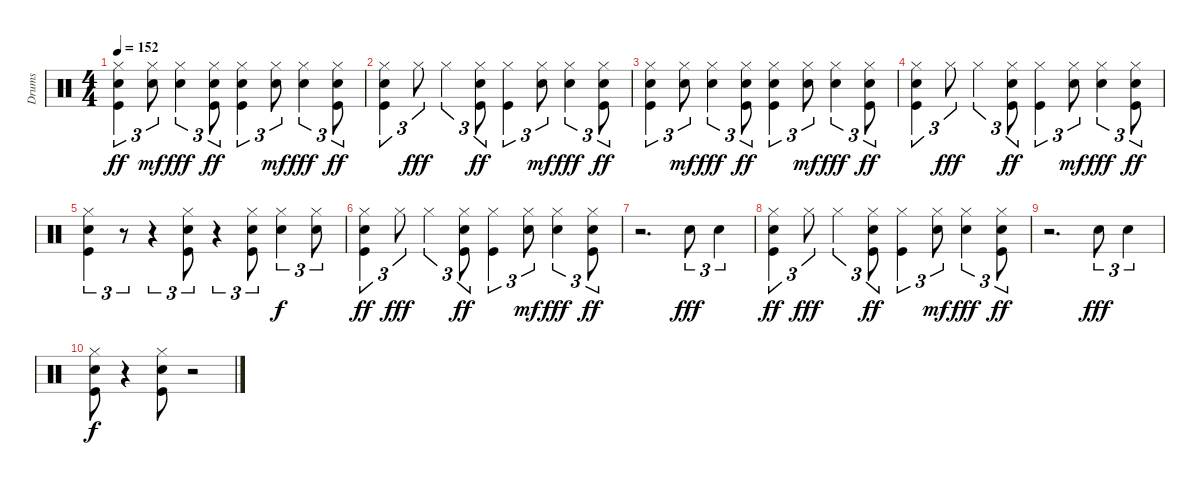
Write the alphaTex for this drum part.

\track ("Drums" "Drums") {instrument percussion}
\staff {score}
\articulation defaults
\ts (4 4)
\tempo 152
\clef neutral
\ks c
("Hi-Hat (closed)" "Snare (hit) 2" "Kick (hit)").4{tu (3 2) dy ff} ("Hi-Hat (closed)" "Snare (hit) 2").8{tu (3 2) dy mf} ("Hi-Hat (closed)" "Snare (hit) 2").4{tu (3 2) dy fff} ("Hi-Hat (closed)" "Snare (hit) 2" "Kick (hit)").8{tu (3 2) dy ff} ("Hi-Hat (closed)" "Snare (hit) 2" "Kick (hit)").4{tu (3 2)} ("Hi-Hat (closed)" "Snare (hit) 2").8{tu (3 2) dy mf} ("Hi-Hat (closed)" "Snare (hit) 2").4{tu (3 2) dy fff} ("Hi-Hat (closed)" "Snare (hit) 2" "Kick (hit)").8{tu (3 2) dy ff} |
("Hi-Hat (closed)" "Snare (hit) 2" "Kick (hit)").4{tu (3 2)} "Hi-Hat (closed)".8{tu (3 2) dy fff} "Hi-Hat (closed)".4{tu (3 2)} ("Hi-Hat (closed)" "Snare (hit) 2" "Kick (hit)").8{tu (3 2) dy ff} ("Hi-Hat (closed)" "Kick (hit)").4{tu (3 2)} ("Hi-Hat (closed)" "Snare (hit) 2").8{tu (3 2) dy mf} ("Hi-Hat (closed)" "Snare (hit) 2").4{tu (3 2) dy fff} ("Hi-Hat (closed)" "Snare (hit) 2" "Kick (hit)").8{tu (3 2) dy ff} |
("Hi-Hat (closed)" "Snare (hit) 2" "Kick (hit)").4{tu (3 2)} ("Hi-Hat (closed)" "Snare (hit) 2").8{tu (3 2) dy mf} ("Hi-Hat (closed)" "Snare (hit) 2").4{tu (3 2) dy fff} ("Hi-Hat (closed)" "Snare (hit) 2" "Kick (hit)").8{tu (3 2) dy ff} ("Hi-Hat (closed)" "Snare (hit) 2" "Kick (hit)").4{tu (3 2)} ("Hi-Hat (closed)" "Snare (hit) 2").8{tu (3 2) dy mf} ("Hi-Hat (closed)" "Snare (hit) 2").4{tu (3 2) dy fff} ("Hi-Hat (closed)" "Snare (hit) 2" "Kick (hit)").8{tu (3 2) dy ff} |
("Hi-Hat (closed)" "Snare (hit) 2" "Kick (hit)").4{tu (3 2)} "Hi-Hat (closed)".8{tu (3 2) dy fff} "Hi-Hat (closed)".4{tu (3 2)} ("Hi-Hat (closed)" "Snare (hit) 2" "Kick (hit)").8{tu (3 2) dy ff} ("Hi-Hat (closed)" "Kick (hit)").4{tu (3 2)} ("Hi-Hat (closed)" "Snare (hit) 2").8{tu (3 2) dy mf} ("Hi-Hat (closed)" "Snare (hit) 2").4{tu (3 2) dy fff} ("Hi-Hat (closed)" "Snare (hit) 2" "Kick (hit)").8{tu (3 2) dy ff} |
("Hi-Hat (closed)" "Snare (hit) 2" "Kick (hit)").4{tu (3 2)} r.8{tu (3 2)} r.4{tu (3 2)} ("Hi-Hat (closed)" "Snare (hit) 2" "Kick (hit)").8{tu (3 2)} r.4{tu (3 2)} ("Hi-Hat (closed)" "Snare (hit) 2" "Kick (hit)").8{tu (3 2)} ("Hi-Hat (closed)" "Snare (hit) 2").4{tu (3 2) dy f} ("Hi-Hat (closed)" "Snare (hit) 2").8{tu (3 2)} |
("Hi-Hat (closed)" "Snare (hit) 2" "Kick (hit)").4{tu (3 2) dy ff} "Hi-Hat (closed)".8{tu (3 2) dy fff} "Hi-Hat (closed)".4{tu (3 2)} ("Hi-Hat (closed)" "Snare (hit) 2" "Kick (hit)").8{tu (3 2) dy ff} ("Hi-Hat (closed)" "Kick (hit)").4{tu (3 2)} ("Hi-Hat (closed)" "Snare (hit) 2").8{tu (3 2) dy mf} ("Hi-Hat (closed)" "Snare (hit) 2").4{tu (3 2) dy fff} ("Hi-Hat (closed)" "Snare (hit) 2" "Kick (hit)").8{tu (3 2) dy ff} |
r.2{d} "Snare (hit) 2".8{tu (3 2) dy fff} "Snare (hit) 2".4{tu (3 2)} |
("Hi-Hat (closed)" "Snare (hit) 2" "Kick (hit)").4{tu (3 2) dy ff} "Hi-Hat (closed)".8{tu (3 2) dy fff} "Hi-Hat (closed)".4{tu (3 2)} ("Hi-Hat (closed)" "Snare (hit) 2" "Kick (hit)").8{tu (3 2) dy ff} ("Hi-Hat (closed)" "Kick (hit)").4{tu (3 2)} ("Hi-Hat (closed)" "Snare (hit) 2").8{tu (3 2) dy mf} ("Hi-Hat (closed)" "Snare (hit) 2").4{tu (3 2) dy fff} ("Hi-Hat (closed)" "Snare (hit) 2" "Kick (hit)").8{tu (3 2) dy ff} |
r.2{d} "Snare (hit) 2".8{tu (3 2) dy fff} "Snare (hit) 2".4{tu (3 2)} |
("Hi-Hat (closed)" "Snare (hit) 2" "Kick (hit)").8{dy f} r.4 ("Hi-Hat (closed)" "Snare (hit) 2" "Kick (hit)").8 r.2
